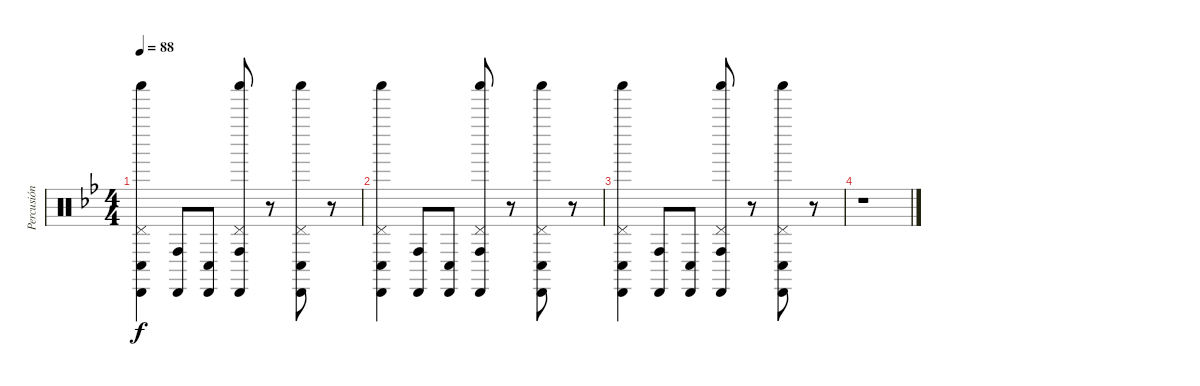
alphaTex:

\track ("Percusión" "Percusión") {instrument percussion}
\staff {score}
\articulation defaults
\ts (4 4)
\tempo 88
\clef neutral
\ks bb
("Cabasa (hit)" "Conga low (hit)" "Pedal Hi-Hat (hit)" "Shaker (hit)").4{dy f} ("Cabasa (hit)" "Conga high (hit)").8 ("Cabasa (hit)" "Conga low (hit)").8 ("Cabasa (hit)" "Conga high (hit)" "Pedal Hi-Hat (hit)" "Shaker (hit)").8 r.8 ("Cabasa (hit)" "Conga low (hit)" "Pedal Hi-Hat (hit)" "Shaker (hit)").8 r.8 |
("Cabasa (hit)" "Conga low (hit)" "Pedal Hi-Hat (hit)" "Shaker (hit)").4 ("Cabasa (hit)" "Conga high (hit)").8 ("Cabasa (hit)" "Conga low (hit)").8 ("Cabasa (hit)" "Conga high (hit)" "Pedal Hi-Hat (hit)" "Shaker (hit)").8 r.8 ("Cabasa (hit)" "Conga low (hit)" "Pedal Hi-Hat (hit)" "Shaker (hit)").8 r.8 |
("Cabasa (hit)" "Conga low (hit)" "Pedal Hi-Hat (hit)" "Shaker (hit)").4 ("Cabasa (hit)" "Conga high (hit)").8 ("Cabasa (hit)" "Conga low (hit)").8 ("Cabasa (hit)" "Conga high (hit)" "Pedal Hi-Hat (hit)" "Shaker (hit)").8 r.8 ("Cabasa (hit)" "Conga low (hit)" "Pedal Hi-Hat (hit)" "Shaker (hit)").8 r.8 |
r.1
